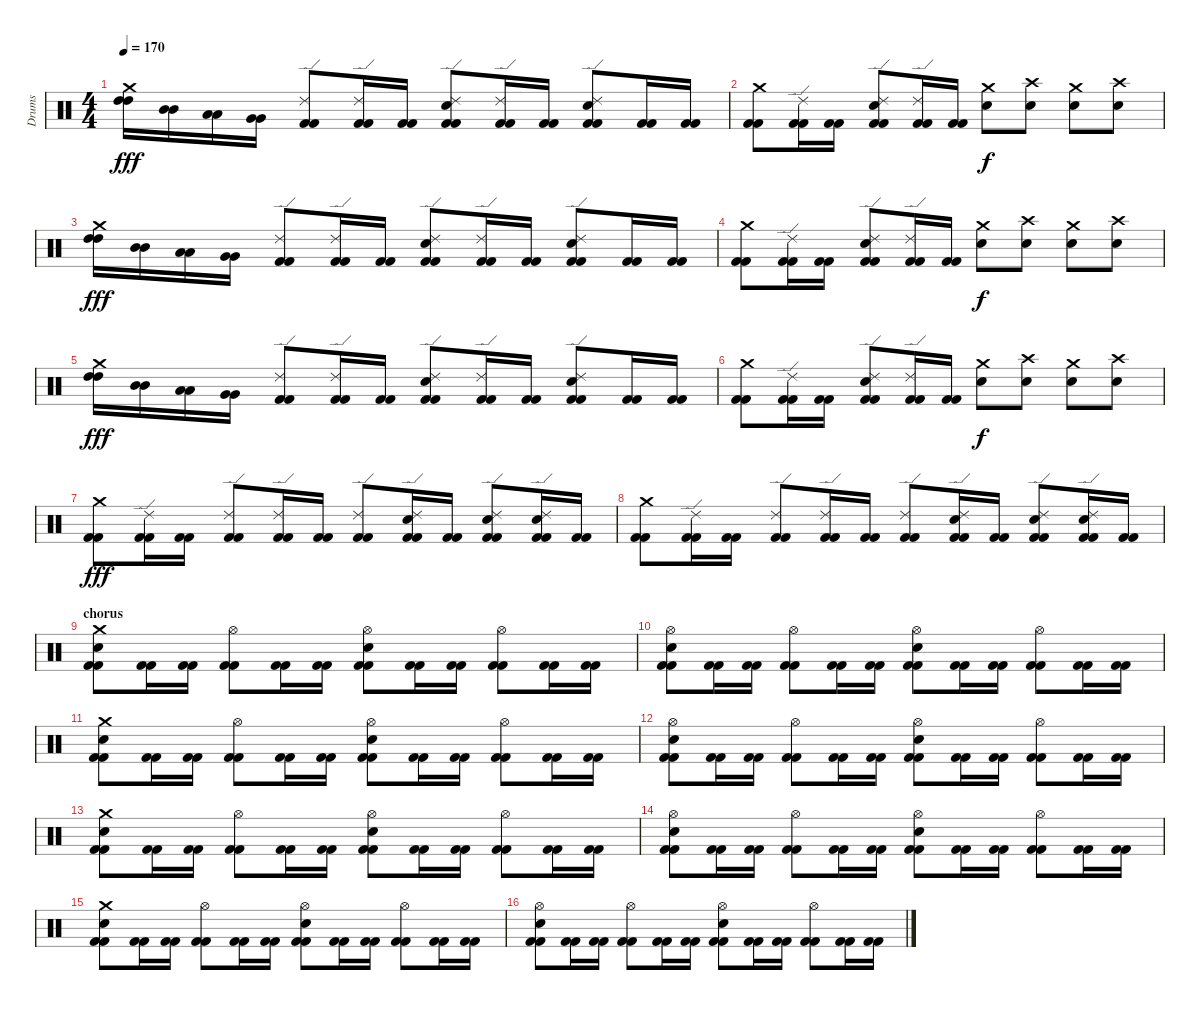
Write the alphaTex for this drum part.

\track ("Drums" "Drums") {instrument percussion}
\staff {score}
\articulation defaults
\ts (4 4)
\tempo 170
\clef neutral
\ks c
("High Tom (hit)" "High Tom (hit)" "Crash medium (hit)").16{dy fff} ("Mid Tom (hit)" "Mid Tom (hit)").16 ("Low Tom (hit)" "Low Tom (hit)").16 ("Very Low Tom (hit)" "Very Low Tom (hit)").16 ("Ride (edge) 2" "Kick (hit) 2" "Kick (hit) 2").8 ("Ride (edge) 2" "Kick (hit) 2" "Kick (hit) 2").16 ("Kick (hit) 2" "Kick (hit) 2").16 ("Ride (edge) 2" "Electric Snare (hit)" "Kick (hit) 2" "Kick (hit) 2").8 ("Ride (edge) 2" "Kick (hit) 2" "Kick (hit) 2").16 ("Kick (hit) 2" "Kick (hit) 2").16 ("Ride (edge) 2" "Electric Snare (hit)" "Kick (hit) 2" "Kick (hit) 2").8 ("Kick (hit) 2" "Kick (hit) 2").16 ("Kick (hit) 2" "Kick (hit) 2").16 |
("Crash medium (hit)" "Kick (hit) 2" "Kick (hit) 2").8 ("Ride (edge) 2" "Kick (hit) 2" "Kick (hit) 2").16 ("Kick (hit) 2" "Kick (hit) 2").16 ("Ride (edge) 2" "Electric Snare (hit)" "Kick (hit) 2" "Kick (hit) 2").8 ("Ride (edge) 2" "Kick (hit) 2" "Kick (hit) 2").16 ("Kick (hit) 2" "Kick (hit) 2").16 ("Electric Snare (hit)" "Crash medium (hit)").8{dy f} ("Crash high (hit)" "Electric Snare (hit)").8 ("Electric Snare (hit)" "Crash medium (hit)").8 ("Crash high (hit)" "Electric Snare (hit)").8 |
("High Tom (hit)" "High Tom (hit)" "Crash medium (hit)").16{dy fff} ("Mid Tom (hit)" "Mid Tom (hit)").16 ("Low Tom (hit)" "Low Tom (hit)").16 ("Very Low Tom (hit)" "Very Low Tom (hit)").16 ("Ride (edge) 2" "Kick (hit) 2" "Kick (hit) 2").8 ("Ride (edge) 2" "Kick (hit) 2" "Kick (hit) 2").16 ("Kick (hit) 2" "Kick (hit) 2").16 ("Ride (edge) 2" "Electric Snare (hit)" "Kick (hit) 2" "Kick (hit) 2").8 ("Ride (edge) 2" "Kick (hit) 2" "Kick (hit) 2").16 ("Kick (hit) 2" "Kick (hit) 2").16 ("Ride (edge) 2" "Electric Snare (hit)" "Kick (hit) 2" "Kick (hit) 2").8 ("Kick (hit) 2" "Kick (hit) 2").16 ("Kick (hit) 2" "Kick (hit) 2").16 |
("Crash medium (hit)" "Kick (hit) 2" "Kick (hit) 2").8 ("Ride (edge) 2" "Kick (hit) 2" "Kick (hit) 2").16 ("Kick (hit) 2" "Kick (hit) 2").16 ("Ride (edge) 2" "Electric Snare (hit)" "Kick (hit) 2" "Kick (hit) 2").8 ("Ride (edge) 2" "Kick (hit) 2" "Kick (hit) 2").16 ("Kick (hit) 2" "Kick (hit) 2").16 ("Electric Snare (hit)" "Crash medium (hit)").8{dy f} ("Crash high (hit)" "Electric Snare (hit)").8 ("Electric Snare (hit)" "Crash medium (hit)").8 ("Crash high (hit)" "Electric Snare (hit)").8 |
("High Tom (hit)" "High Tom (hit)" "Crash medium (hit)").16{dy fff} ("Mid Tom (hit)" "Mid Tom (hit)").16 ("Low Tom (hit)" "Low Tom (hit)").16 ("Very Low Tom (hit)" "Very Low Tom (hit)").16 ("Ride (edge) 2" "Kick (hit) 2" "Kick (hit) 2").8 ("Ride (edge) 2" "Kick (hit) 2" "Kick (hit) 2").16 ("Kick (hit) 2" "Kick (hit) 2").16 ("Ride (edge) 2" "Electric Snare (hit)" "Kick (hit) 2" "Kick (hit) 2").8 ("Ride (edge) 2" "Kick (hit) 2" "Kick (hit) 2").16 ("Kick (hit) 2" "Kick (hit) 2").16 ("Ride (edge) 2" "Electric Snare (hit)" "Kick (hit) 2" "Kick (hit) 2").8 ("Kick (hit) 2" "Kick (hit) 2").16 ("Kick (hit) 2" "Kick (hit) 2").16 |
("Crash medium (hit)" "Kick (hit) 2" "Kick (hit) 2").8 ("Ride (edge) 2" "Kick (hit) 2" "Kick (hit) 2").16 ("Kick (hit) 2" "Kick (hit) 2").16 ("Ride (edge) 2" "Electric Snare (hit)" "Kick (hit) 2" "Kick (hit) 2").8 ("Ride (edge) 2" "Kick (hit) 2" "Kick (hit) 2").16 ("Kick (hit) 2" "Kick (hit) 2").16 ("Electric Snare (hit)" "Crash medium (hit)").8{dy f} ("Crash high (hit)" "Electric Snare (hit)").8 ("Electric Snare (hit)" "Crash medium (hit)").8 ("Crash high (hit)" "Electric Snare (hit)").8 |
("Crash medium (hit)" "Kick (hit) 2" "Kick (hit) 2").8{dy fff} ("Ride (edge) 2" "Kick (hit) 2" "Kick (hit) 2").16 ("Kick (hit) 2" "Kick (hit) 2").16 ("Ride (edge) 2" "Kick (hit) 2" "Kick (hit) 2").8 ("Ride (edge) 2" "Kick (hit) 2" "Kick (hit) 2").16 ("Kick (hit) 2" "Kick (hit) 2").16 ("Ride (edge) 2" "Kick (hit) 2" "Kick (hit) 2").8 ("Ride (edge) 2" "Electric Snare (hit)" "Kick (hit) 2" "Kick (hit) 2").16 ("Kick (hit) 2" "Kick (hit) 2").16 ("Ride (edge) 2" "Electric Snare (hit)" "Kick (hit) 2" "Kick (hit) 2").8 ("Ride (edge) 2" "Electric Snare (hit)" "Kick (hit) 2" "Kick (hit) 2").16 ("Kick (hit) 2" "Kick (hit) 2").16 |
("Crash medium (hit)" "Kick (hit) 2" "Kick (hit) 2").8 ("Ride (edge) 2" "Kick (hit) 2" "Kick (hit) 2").16 ("Kick (hit) 2" "Kick (hit) 2").16 ("Ride (edge) 2" "Kick (hit) 2" "Kick (hit) 2").8 ("Ride (edge) 2" "Kick (hit) 2" "Kick (hit) 2").16 ("Kick (hit) 2" "Kick (hit) 2").16 ("Ride (edge) 2" "Kick (hit) 2" "Kick (hit) 2").8 ("Ride (edge) 2" "Electric Snare (hit)" "Kick (hit) 2" "Kick (hit) 2").16 ("Kick (hit) 2" "Kick (hit) 2").16 ("Ride (edge) 2" "Electric Snare (hit)" "Kick (hit) 2" "Kick (hit) 2").8 ("Ride (edge) 2" "Electric Snare (hit)" "Kick (hit) 2" "Kick (hit) 2").16 ("Kick (hit) 2" "Kick (hit) 2").16 |
\section ("" "chorus")
("Crash medium (hit)" "Electric Snare (hit)" "Kick (hit) 2" "Kick (hit) 2").8 ("Kick (hit) 2" "Kick (hit) 2").16 ("Kick (hit) 2" "Kick (hit) 2").16 ("Hi-Hat (open)" "Kick (hit) 2" "Kick (hit) 2").8 ("Kick (hit) 2" "Kick (hit) 2").16 ("Kick (hit) 2" "Kick (hit) 2").16 ("Hi-Hat (open)" "Electric Snare (hit)" "Kick (hit) 2" "Kick (hit) 2").8 ("Kick (hit) 2" "Kick (hit) 2").16 ("Kick (hit) 2" "Kick (hit) 2").16 ("Hi-Hat (open)" "Kick (hit) 2" "Kick (hit) 2").8 ("Kick (hit) 2" "Kick (hit) 2").16 ("Kick (hit) 2" "Kick (hit) 2").16 |
("Hi-Hat (open)" "Electric Snare (hit)" "Kick (hit) 2" "Kick (hit) 2").8 ("Kick (hit) 2" "Kick (hit) 2").16 ("Kick (hit) 2" "Kick (hit) 2").16 ("Hi-Hat (open)" "Kick (hit) 2" "Kick (hit) 2").8 ("Kick (hit) 2" "Kick (hit) 2").16 ("Kick (hit) 2" "Kick (hit) 2").16 ("Hi-Hat (open)" "Electric Snare (hit)" "Kick (hit) 2" "Kick (hit) 2").8 ("Kick (hit) 2" "Kick (hit) 2").16 ("Kick (hit) 2" "Kick (hit) 2").16 ("Hi-Hat (open)" "Kick (hit) 2" "Kick (hit) 2").8 ("Kick (hit) 2" "Kick (hit) 2").16 ("Kick (hit) 2" "Kick (hit) 2").16 |
("Crash medium (hit)" "Electric Snare (hit)" "Kick (hit) 2" "Kick (hit) 2").8 ("Kick (hit) 2" "Kick (hit) 2").16 ("Kick (hit) 2" "Kick (hit) 2").16 ("Hi-Hat (open)" "Kick (hit) 2" "Kick (hit) 2").8 ("Kick (hit) 2" "Kick (hit) 2").16 ("Kick (hit) 2" "Kick (hit) 2").16 ("Hi-Hat (open)" "Electric Snare (hit)" "Kick (hit) 2" "Kick (hit) 2").8 ("Kick (hit) 2" "Kick (hit) 2").16 ("Kick (hit) 2" "Kick (hit) 2").16 ("Hi-Hat (open)" "Kick (hit) 2" "Kick (hit) 2").8 ("Kick (hit) 2" "Kick (hit) 2").16 ("Kick (hit) 2" "Kick (hit) 2").16 |
("Hi-Hat (open)" "Electric Snare (hit)" "Kick (hit) 2" "Kick (hit) 2").8 ("Kick (hit) 2" "Kick (hit) 2").16 ("Kick (hit) 2" "Kick (hit) 2").16 ("Hi-Hat (open)" "Kick (hit) 2" "Kick (hit) 2").8 ("Kick (hit) 2" "Kick (hit) 2").16 ("Kick (hit) 2" "Kick (hit) 2").16 ("Hi-Hat (open)" "Electric Snare (hit)" "Kick (hit) 2" "Kick (hit) 2").8 ("Kick (hit) 2" "Kick (hit) 2").16 ("Kick (hit) 2" "Kick (hit) 2").16 ("Hi-Hat (open)" "Kick (hit) 2" "Kick (hit) 2").8 ("Kick (hit) 2" "Kick (hit) 2").16 ("Kick (hit) 2" "Kick (hit) 2").16 |
("Crash medium (hit)" "Electric Snare (hit)" "Kick (hit) 2" "Kick (hit) 2").8 ("Kick (hit) 2" "Kick (hit) 2").16 ("Kick (hit) 2" "Kick (hit) 2").16 ("Hi-Hat (open)" "Kick (hit) 2" "Kick (hit) 2").8 ("Kick (hit) 2" "Kick (hit) 2").16 ("Kick (hit) 2" "Kick (hit) 2").16 ("Hi-Hat (open)" "Electric Snare (hit)" "Kick (hit) 2" "Kick (hit) 2").8 ("Kick (hit) 2" "Kick (hit) 2").16 ("Kick (hit) 2" "Kick (hit) 2").16 ("Hi-Hat (open)" "Kick (hit) 2" "Kick (hit) 2").8 ("Kick (hit) 2" "Kick (hit) 2").16 ("Kick (hit) 2" "Kick (hit) 2").16 |
("Hi-Hat (open)" "Electric Snare (hit)" "Kick (hit) 2" "Kick (hit) 2").8 ("Kick (hit) 2" "Kick (hit) 2").16 ("Kick (hit) 2" "Kick (hit) 2").16 ("Hi-Hat (open)" "Kick (hit) 2" "Kick (hit) 2").8 ("Kick (hit) 2" "Kick (hit) 2").16 ("Kick (hit) 2" "Kick (hit) 2").16 ("Hi-Hat (open)" "Electric Snare (hit)" "Kick (hit) 2" "Kick (hit) 2").8 ("Kick (hit) 2" "Kick (hit) 2").16 ("Kick (hit) 2" "Kick (hit) 2").16 ("Hi-Hat (open)" "Kick (hit) 2" "Kick (hit) 2").8 ("Kick (hit) 2" "Kick (hit) 2").16 ("Kick (hit) 2" "Kick (hit) 2").16 |
("Crash medium (hit)" "Electric Snare (hit)" "Kick (hit) 2" "Kick (hit) 2").8 ("Kick (hit) 2" "Kick (hit) 2").16 ("Kick (hit) 2" "Kick (hit) 2").16 ("Hi-Hat (open)" "Kick (hit) 2" "Kick (hit) 2").8 ("Kick (hit) 2" "Kick (hit) 2").16 ("Kick (hit) 2" "Kick (hit) 2").16 ("Hi-Hat (open)" "Electric Snare (hit)" "Kick (hit) 2" "Kick (hit) 2").8 ("Kick (hit) 2" "Kick (hit) 2").16 ("Kick (hit) 2" "Kick (hit) 2").16 ("Hi-Hat (open)" "Kick (hit) 2" "Kick (hit) 2").8 ("Kick (hit) 2" "Kick (hit) 2").16 ("Kick (hit) 2" "Kick (hit) 2").16 |
("Hi-Hat (open)" "Electric Snare (hit)" "Kick (hit) 2" "Kick (hit) 2").8 ("Kick (hit) 2" "Kick (hit) 2").16 ("Kick (hit) 2" "Kick (hit) 2").16 ("Hi-Hat (open)" "Kick (hit) 2" "Kick (hit) 2").8 ("Kick (hit) 2" "Kick (hit) 2").16 ("Kick (hit) 2" "Kick (hit) 2").16 ("Hi-Hat (open)" "Electric Snare (hit)" "Kick (hit) 2" "Kick (hit) 2").8 ("Kick (hit) 2" "Kick (hit) 2").16 ("Kick (hit) 2" "Kick (hit) 2").16 ("Hi-Hat (open)" "Kick (hit) 2" "Kick (hit) 2").8 ("Kick (hit) 2" "Kick (hit) 2").16 ("Kick (hit) 2" "Kick (hit) 2").16
